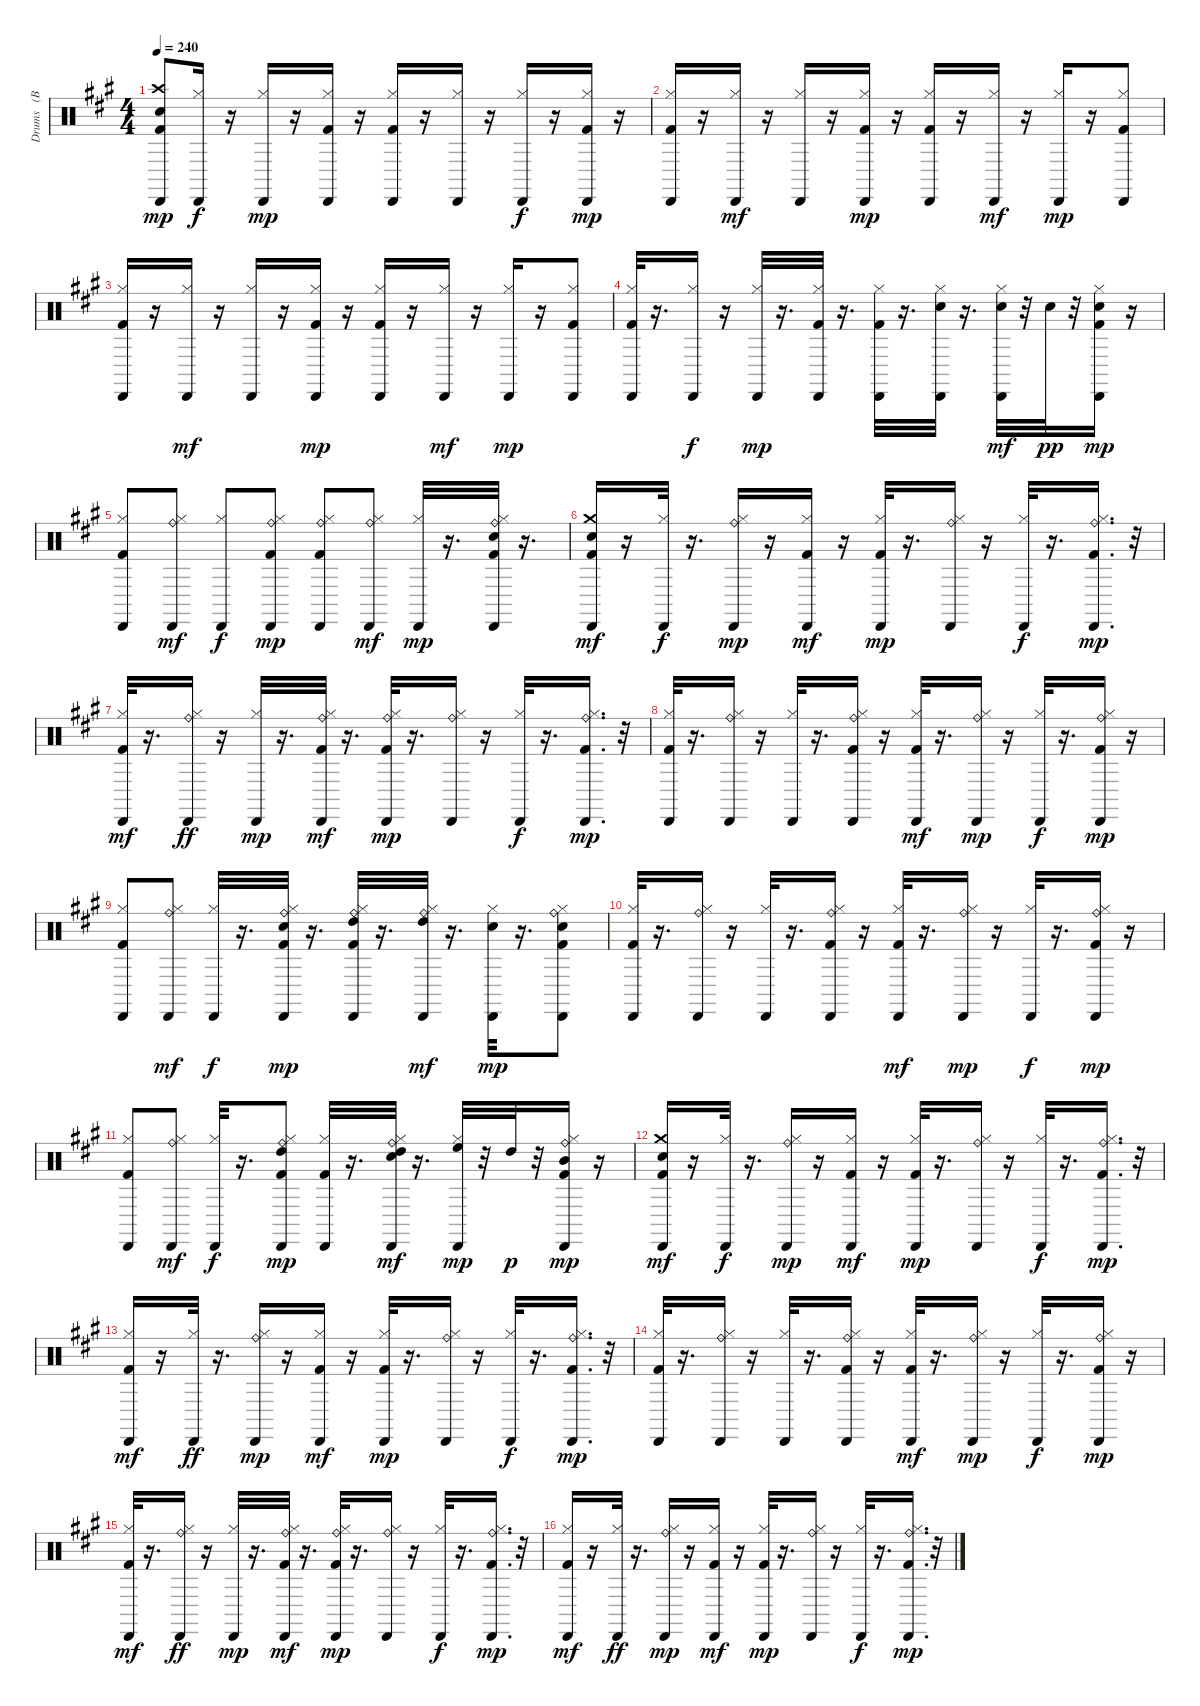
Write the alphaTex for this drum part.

\track ("Drums   (BB)" "Drums   (B") {instrument percussion}
\staff {score}
\articulation defaults
\ts (4 4)
\tempo 240
\clef neutral
\ks a
("Electric Snare (hit)" "Crash high (hit)" "Kick (hit) 2" "Cabasa (hit)").8{dy mp} ("Hi-Hat (closed)" "Cabasa (hit)").16{dy f} r.16 ("Hi-Hat (closed)" "Cabasa (hit)").16{dy mp} r.16 ("Kick (hit) 2" "Hi-Hat (closed)" "Cabasa (hit)").16 r.16 ("Kick (hit) 2" "Hi-Hat (closed)" "Cabasa (hit)").16 r.16 ("Hi-Hat (closed)" "Cabasa (hit)").16 r.16 ("Hi-Hat (closed)" "Cabasa (hit)").16{dy f} r.16 ("Kick (hit) 2" "Hi-Hat (closed)" "Cabasa (hit)").16{dy mp} r.16 |
("Kick (hit) 2" "Hi-Hat (closed)" "Cabasa (hit)").16 r.16 ("Hi-Hat (closed)" "Cabasa (hit)").16{dy mf} r.16 ("Hi-Hat (closed)" "Cabasa (hit)").16 r.16 ("Kick (hit) 2" "Hi-Hat (closed)" "Cabasa (hit)").16{dy mp} r.16 ("Kick (hit) 2" "Hi-Hat (closed)" "Cabasa (hit)").16 r.16 ("Hi-Hat (closed)" "Cabasa (hit)").16{dy mf} r.16 ("Hi-Hat (closed)" "Cabasa (hit)").16{dy mp} r.16 ("Kick (hit) 2" "Hi-Hat (closed)" "Cabasa (hit)").8 |
("Kick (hit) 2" "Hi-Hat (closed)" "Cabasa (hit)").16 r.16 ("Hi-Hat (closed)" "Cabasa (hit)").16{dy mf} r.16 ("Hi-Hat (closed)" "Cabasa (hit)").16 r.16 ("Kick (hit) 2" "Hi-Hat (closed)" "Cabasa (hit)").16{dy mp} r.16 ("Kick (hit) 2" "Hi-Hat (closed)" "Cabasa (hit)").16 r.16 ("Hi-Hat (closed)" "Cabasa (hit)").16{dy mf} r.16 ("Hi-Hat (closed)" "Cabasa (hit)").16{dy mp} r.16 ("Kick (hit) 2" "Hi-Hat (closed)" "Cabasa (hit)").8 |
("Kick (hit) 2" "Hi-Hat (closed)" "Cabasa (hit)").32 r.16{d} ("Hi-Hat (closed)" "Cabasa (hit)").16{dy f} r.16 ("Hi-Hat (closed)" "Cabasa (hit)").32{dy mp} r.16{d} ("Kick (hit) 2" "Hi-Hat (closed)" "Cabasa (hit)").32 r.16{d} ("Kick (hit) 2" "Hi-Hat (closed)" "Cabasa (hit)").32 r.16{d} ("Electric Snare (hit)" "Hi-Hat (closed)" "Cabasa (hit)").32 r.16{d} ("Electric Snare (hit)" "Hi-Hat (closed)" "Cabasa (hit)").32{dy mf} r.32 "Snare (hit) 2".32{dy pp} r.32 ("Electric Snare (hit)" "Kick (hit) 2" "Hi-Hat (closed)" "Cabasa (hit)").16{dy mp} r.16 |
("Kick (hit) 2" "Hi-Hat (closed)" "Cabasa (hit)").8 ("Ride (bell)" "Hi-Hat (closed)" "Cabasa (hit)").8{dy mf} ("Hi-Hat (closed)" "Cabasa (hit)").8{dy f} ("Ride (bell)" "Kick (hit) 2" "Hi-Hat (closed)" "Cabasa (hit)").8{dy mp} ("Ride (bell)" "Kick (hit) 2" "Hi-Hat (closed)" "Cabasa (hit)").8 ("Ride (bell)" "Hi-Hat (closed)" "Cabasa (hit)").8{dy mf} ("Hi-Hat (closed)" "Cabasa (hit)").32{dy mp} r.16{d} ("Electric Snare (hit)" "Ride (bell)" "Kick (hit) 2" "Hi-Hat (closed)" "Cabasa (hit)").32 r.16{d} |
("Snare (hit) 2" "Crash medium (hit)" "Kick (hit) 2" "Cabasa (hit)").16{dy mf} r.16 ("Hi-Hat (closed)" "Cabasa (hit)").32{dy f} r.16{d} ("Ride (bell)" "Hi-Hat (closed)" "Cabasa (hit)").16{dy mp} r.16 ("Kick (hit) 2" "Hi-Hat (closed)" "Cabasa (hit)").16{dy mf} r.16 ("Kick (hit) 2" "Hi-Hat (closed)" "Cabasa (hit)").32{dy mp} r.16{d} ("Ride (bell)" "Hi-Hat (closed)" "Cabasa (hit)").16 r.16 ("Hi-Hat (closed)" "Cabasa (hit)").32{dy f} r.16{d} ("Ride (bell)" "Kick (hit) 2" "Hi-Hat (closed)" "Cabasa (hit)").16{d dy mp} r.32 |
("Kick (hit) 2" "Hi-Hat (closed)" "Cabasa (hit)").32{dy mf} r.16{d} ("Ride (bell)" "Hi-Hat (closed)" "Cabasa (hit)").16{dy ff} r.16 ("Hi-Hat (closed)" "Cabasa (hit)").32{dy mp} r.16{d} ("Ride (bell)" "Kick (hit) 2" "Hi-Hat (closed)" "Cabasa (hit)").32{dy mf} r.16{d} ("Ride (bell)" "Kick (hit) 2" "Hi-Hat (closed)" "Cabasa (hit)").32{dy mp} r.16{d} ("Ride (bell)" "Hi-Hat (closed)" "Cabasa (hit)").16 r.16 ("Hi-Hat (closed)" "Cabasa (hit)").32{dy f} r.16{d} ("Ride (bell)" "Kick (hit) 2" "Hi-Hat (closed)" "Cabasa (hit)").16{d dy mp} r.32 |
("Kick (hit) 2" "Hi-Hat (closed)" "Cabasa (hit)").32 r.16{d} ("Ride (bell)" "Hi-Hat (closed)" "Cabasa (hit)").16 r.16 ("Hi-Hat (closed)" "Cabasa (hit)").32 r.16{d} ("Ride (bell)" "Kick (hit) 2" "Hi-Hat (closed)" "Cabasa (hit)").16 r.16 ("Kick (hit) 2" "Hi-Hat (closed)" "Cabasa (hit)").32{dy mf} r.16{d} ("Ride (bell)" "Hi-Hat (closed)" "Cabasa (hit)").16{dy mp} r.16 ("Hi-Hat (closed)" "Cabasa (hit)").32{dy f} r.16{d} ("Ride (bell)" "Kick (hit) 2" "Hi-Hat (closed)" "Cabasa (hit)").16{dy mp} r.16 |
("Kick (hit) 2" "Hi-Hat (closed)" "Cabasa (hit)").8 ("Ride (bell)" "Hi-Hat (closed)" "Cabasa (hit)").8{dy mf} ("Hi-Hat (closed)" "Cabasa (hit)").32{dy f} r.16{d} ("Electric Snare (hit)" "Hi-Hat (closed)" "Ride (bell)" "Kick (hit) 2" "Cabasa (hit)").32{dy mp} r.16{d} ("High Tom (hit)" "Ride (bell)" "Kick (hit) 2" "Hi-Hat (closed)" "Cabasa (hit)").32 r.16{d} ("High Tom (hit)" "Ride (bell)" "Hi-Hat (closed)" "Cabasa (hit)").32{dy mf} r.16{d} ("Electric Snare (hit)" "Hi-Hat (closed)" "Cabasa (hit)").32{dy mp} r.16{d} ("Electric Snare (hit)" "Ride (bell)" "Kick (hit) 2" "Hi-Hat (closed)" "Cabasa (hit)").8 |
("Kick (hit) 2" "Hi-Hat (closed)" "Cabasa (hit)").32 r.16{d} ("Ride (bell)" "Hi-Hat (closed)" "Cabasa (hit)").16 r.16 ("Hi-Hat (closed)" "Cabasa (hit)").32 r.16{d} ("Ride (bell)" "Kick (hit) 2" "Hi-Hat (closed)" "Cabasa (hit)").16 r.16 ("Kick (hit) 2" "Hi-Hat (closed)" "Cabasa (hit)").32{dy mf} r.16{d} ("Ride (bell)" "Hi-Hat (closed)" "Cabasa (hit)").16{dy mp} r.16 ("Hi-Hat (closed)" "Cabasa (hit)").32{dy f} r.16{d} ("Ride (bell)" "Kick (hit) 2" "Hi-Hat (closed)" "Cabasa (hit)").16{dy mp} r.16 |
("Kick (hit) 2" "Hi-Hat (closed)" "Cabasa (hit)").8 ("Ride (bell)" "Hi-Hat (closed)" "Cabasa (hit)").8{dy mf} ("Hi-Hat (closed)" "Cabasa (hit)").32{dy f} r.16{d} ("High Tom (hit)" "Ride (bell)" "Kick (hit) 2" "Hi-Hat (closed)" "Cabasa (hit)").8{dy mp} ("Kick (hit) 2" "Hi-Hat (closed)" "Cabasa (hit)").32 r.16{d} ("Snare (hit) 2" "High Tom (hit)" "Ride (bell)" "Hi-Hat (closed)" "Cabasa (hit)").32{dy mf} r.16{d} ("High Floor Tom (hit)" "Hi-Hat (closed)" "Cabasa (hit)").32{dy mp} r.32 "High Tom (hit)".32{dy p} r.32 ("Mid Tom (hit)" "Ride (bell)" "Kick (hit) 2" "Hi-Hat (closed)" "Cabasa (hit)").16{dy mp} r.16 |
("Snare (hit) 2" "Crash medium (hit)" "Kick (hit) 2" "Cabasa (hit)").16{dy mf} r.16 ("Hi-Hat (closed)" "Cabasa (hit)").32{dy f} r.16{d} ("Ride (bell)" "Hi-Hat (closed)" "Cabasa (hit)").16{dy mp} r.16 ("Kick (hit) 2" "Hi-Hat (closed)" "Cabasa (hit)").16{dy mf} r.16 ("Kick (hit) 2" "Hi-Hat (closed)" "Cabasa (hit)").32{dy mp} r.16{d} ("Ride (bell)" "Hi-Hat (closed)" "Cabasa (hit)").16 r.16 ("Hi-Hat (closed)" "Cabasa (hit)").32{dy f} r.16{d} ("Ride (bell)" "Kick (hit) 2" "Hi-Hat (closed)" "Cabasa (hit)").16{d dy mp} r.32 |
("Kick (hit) 2" "Hi-Hat (closed)" "Cabasa (hit)").16{dy mf} r.16 ("Hi-Hat (closed)" "Cabasa (hit)").32{dy ff} r.16{d} ("Ride (bell)" "Hi-Hat (closed)" "Cabasa (hit)").16{dy mp} r.16 ("Kick (hit) 2" "Hi-Hat (closed)" "Cabasa (hit)").16{dy mf} r.16 ("Kick (hit) 2" "Hi-Hat (closed)" "Cabasa (hit)").32{dy mp} r.16{d} ("Ride (bell)" "Hi-Hat (closed)" "Cabasa (hit)").16 r.16 ("Hi-Hat (closed)" "Cabasa (hit)").32{dy f} r.16{d} ("Ride (bell)" "Kick (hit) 2" "Hi-Hat (closed)" "Cabasa (hit)").16{d dy mp} r.32 |
("Kick (hit) 2" "Hi-Hat (closed)" "Cabasa (hit)").32 r.16{d} ("Ride (bell)" "Hi-Hat (closed)" "Cabasa (hit)").16 r.16 ("Hi-Hat (closed)" "Cabasa (hit)").32 r.16{d} ("Ride (bell)" "Kick (hit) 2" "Hi-Hat (closed)" "Cabasa (hit)").16 r.16 ("Kick (hit) 2" "Hi-Hat (closed)" "Cabasa (hit)").32{dy mf} r.16{d} ("Ride (bell)" "Hi-Hat (closed)" "Cabasa (hit)").16{dy mp} r.16 ("Hi-Hat (closed)" "Cabasa (hit)").32{dy f} r.16{d} ("Ride (bell)" "Kick (hit) 2" "Hi-Hat (closed)" "Cabasa (hit)").16{dy mp} r.16 |
("Kick (hit) 2" "Hi-Hat (closed)" "Cabasa (hit)").32{dy mf} r.16{d} ("Ride (bell)" "Hi-Hat (closed)" "Cabasa (hit)").16{dy ff} r.16 ("Hi-Hat (closed)" "Cabasa (hit)").32{dy mp} r.16{d} ("Ride (bell)" "Kick (hit) 2" "Hi-Hat (closed)" "Cabasa (hit)").32{dy mf} r.16{d} ("Ride (bell)" "Kick (hit) 2" "Hi-Hat (closed)" "Cabasa (hit)").32{dy mp} r.16{d} ("Ride (bell)" "Hi-Hat (closed)" "Cabasa (hit)").16 r.16 ("Hi-Hat (closed)" "Cabasa (hit)").32{dy f} r.16{d} ("Ride (bell)" "Kick (hit) 2" "Hi-Hat (closed)" "Cabasa (hit)").16{d dy mp} r.32 |
("Kick (hit) 2" "Hi-Hat (closed)" "Cabasa (hit)").16{dy mf} r.16 ("Hi-Hat (closed)" "Cabasa (hit)").32{dy ff} r.16{d} ("Ride (bell)" "Hi-Hat (closed)" "Cabasa (hit)").16{dy mp} r.16 ("Kick (hit) 2" "Hi-Hat (closed)" "Cabasa (hit)").16{dy mf} r.16 ("Kick (hit) 2" "Hi-Hat (closed)" "Cabasa (hit)").32{dy mp} r.16{d} ("Ride (bell)" "Hi-Hat (closed)" "Cabasa (hit)").16 r.16 ("Hi-Hat (closed)" "Cabasa (hit)").32{dy f} r.16{d} ("Ride (bell)" "Kick (hit) 2" "Hi-Hat (closed)" "Cabasa (hit)").16{d dy mp} r.32
